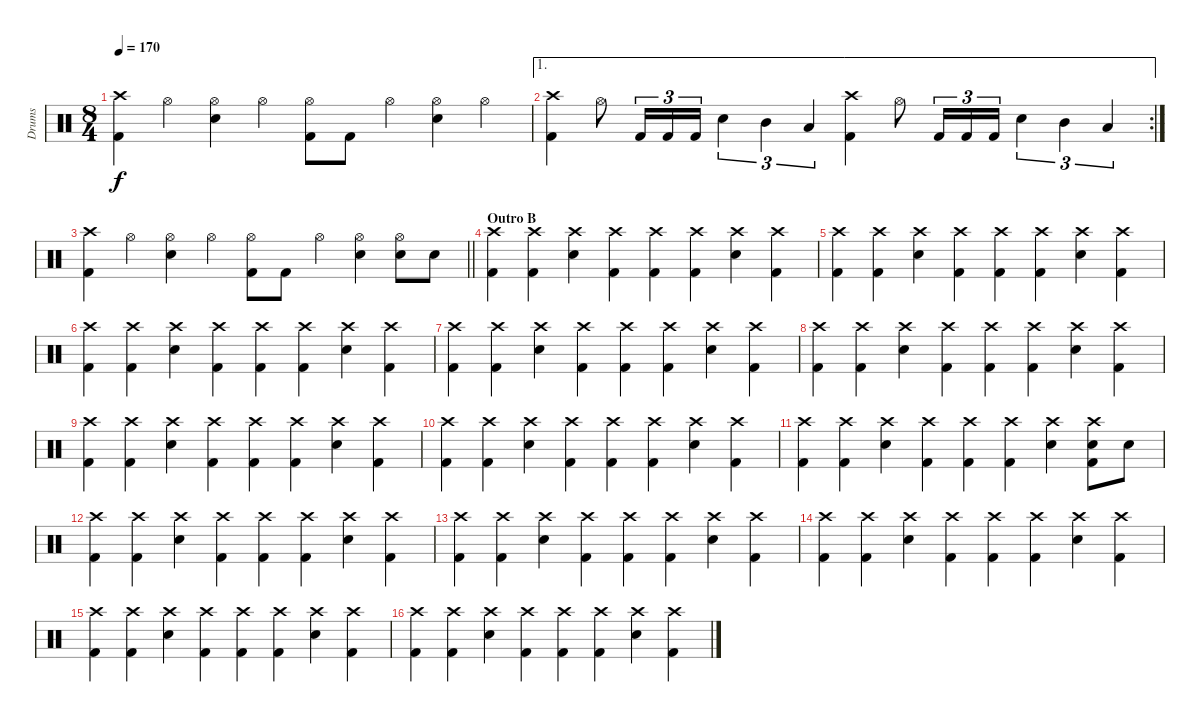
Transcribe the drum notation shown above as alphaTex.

\track ("Drums" "Drums") {instrument percussion}
\staff {score}
\articulation defaults
\ts (8 4)
\tempo 170
\clef neutral
\ks c
("Crash high (hit)" "Kick (hit) 2").4{dy f} "Hi-Hat (open)".4 ("Hi-Hat (open)" "Snare (hit) 2").4 "Hi-Hat (open)".4 ("Hi-Hat (open)" "Kick (hit) 2").8 "Kick (hit) 2".8 "Hi-Hat (open)".4 ("Hi-Hat (open)" "Snare (hit) 2").4 "Hi-Hat (open)".4 |
\ae 1
\rc 2
("Crash high (hit)" "Kick (hit) 2").4 "Hi-Hat (open)".8 "Kick (hit) 2".16{tu (3 2)} "Kick (hit) 2".16{tu (3 2)} "Kick (hit) 2".16{tu (3 2)} "Snare (hit) 2".4{tu (3 2)} "Mid Tom (hit)".4{tu (3 2)} "Low Tom (hit)".4{tu (3 2)} ("Kick (hit) 2" "Crash high (hit)").4 "Hi-Hat (open)".8 "Kick (hit) 2".16{tu (3 2)} "Kick (hit) 2".16{tu (3 2)} "Kick (hit) 2".16{tu (3 2)} "Snare (hit) 2".4{tu (3 2)} "Mid Tom (hit)".4{tu (3 2)} "Low Tom (hit)".4{tu (3 2)} |
\barLineRight lightlight
("Crash high (hit)" "Kick (hit) 2").4 "Hi-Hat (open)".4 ("Hi-Hat (open)" "Snare (hit) 2").4 "Hi-Hat (open)".4 ("Hi-Hat (open)" "Kick (hit) 2").8 "Kick (hit) 2".8 "Hi-Hat (open)".4 ("Hi-Hat (open)" "Snare (hit) 2").4 ("Hi-Hat (open)" "Snare (hit) 2").8 "Snare (hit) 2".8 |
\section ("" "Outro B")
("Crash high (hit)" "Kick (hit) 2").4 ("Crash high (hit)" "Kick (hit) 2").4 ("Crash high (hit)" "Snare (hit) 2").4 ("Crash high (hit)" "Kick (hit) 2").4 ("Crash high (hit)" "Kick (hit) 2").4 ("Crash high (hit)" "Kick (hit) 2").4 ("Crash high (hit)" "Snare (hit) 2").4 ("Crash high (hit)" "Kick (hit) 2").4 |
("Crash high (hit)" "Kick (hit) 2").4 ("Crash high (hit)" "Kick (hit) 2").4 ("Crash high (hit)" "Snare (hit) 2").4 ("Crash high (hit)" "Kick (hit) 2").4 ("Crash high (hit)" "Kick (hit) 2").4 ("Crash high (hit)" "Kick (hit) 2").4 ("Crash high (hit)" "Snare (hit) 2").4 ("Crash high (hit)" "Kick (hit) 2").4 |
("Crash high (hit)" "Kick (hit) 2").4 ("Crash high (hit)" "Kick (hit) 2").4 ("Crash high (hit)" "Snare (hit) 2").4 ("Crash high (hit)" "Kick (hit) 2").4 ("Crash high (hit)" "Kick (hit) 2").4 ("Crash high (hit)" "Kick (hit) 2").4 ("Crash high (hit)" "Snare (hit) 2").4 ("Crash high (hit)" "Kick (hit) 2").4 |
("Crash high (hit)" "Kick (hit) 2").4 ("Crash high (hit)" "Kick (hit) 2").4 ("Crash high (hit)" "Snare (hit) 2").4 ("Crash high (hit)" "Kick (hit) 2").4 ("Crash high (hit)" "Kick (hit) 2").4 ("Crash high (hit)" "Kick (hit) 2").4 ("Crash high (hit)" "Snare (hit) 2").4 ("Crash high (hit)" "Kick (hit) 2").4 |
("Crash high (hit)" "Kick (hit) 2").4 ("Crash high (hit)" "Kick (hit) 2").4 ("Crash high (hit)" "Snare (hit) 2").4 ("Crash high (hit)" "Kick (hit) 2").4 ("Crash high (hit)" "Kick (hit) 2").4 ("Crash high (hit)" "Kick (hit) 2").4 ("Crash high (hit)" "Snare (hit) 2").4 ("Crash high (hit)" "Kick (hit) 2").4 |
("Crash high (hit)" "Kick (hit) 2").4 ("Crash high (hit)" "Kick (hit) 2").4 ("Crash high (hit)" "Snare (hit) 2").4 ("Crash high (hit)" "Kick (hit) 2").4 ("Crash high (hit)" "Kick (hit) 2").4 ("Crash high (hit)" "Kick (hit) 2").4 ("Crash high (hit)" "Snare (hit) 2").4 ("Crash high (hit)" "Kick (hit) 2").4 |
("Crash high (hit)" "Kick (hit) 2").4 ("Crash high (hit)" "Kick (hit) 2").4 ("Crash high (hit)" "Snare (hit) 2").4 ("Crash high (hit)" "Kick (hit) 2").4 ("Crash high (hit)" "Kick (hit) 2").4 ("Crash high (hit)" "Kick (hit) 2").4 ("Crash high (hit)" "Snare (hit) 2").4 ("Crash high (hit)" "Kick (hit) 2").4 |
("Crash high (hit)" "Kick (hit) 2").4 ("Crash high (hit)" "Kick (hit) 2").4 ("Crash high (hit)" "Snare (hit) 2").4 ("Crash high (hit)" "Kick (hit) 2").4 ("Crash high (hit)" "Kick (hit) 2").4 ("Crash high (hit)" "Kick (hit) 2").4 ("Crash high (hit)" "Snare (hit) 2").4 ("Crash high (hit)" "Kick (hit) 2" "Snare (hit) 2").8 "Snare (hit) 2".8 |
("Crash high (hit)" "Kick (hit) 2").4 ("Crash high (hit)" "Kick (hit) 2").4 ("Crash high (hit)" "Snare (hit) 2").4 ("Crash high (hit)" "Kick (hit) 2").4 ("Crash high (hit)" "Kick (hit) 2").4 ("Crash high (hit)" "Kick (hit) 2").4 ("Crash high (hit)" "Snare (hit) 2").4 ("Crash high (hit)" "Kick (hit) 2").4 |
("Crash high (hit)" "Kick (hit) 2").4 ("Crash high (hit)" "Kick (hit) 2").4 ("Crash high (hit)" "Snare (hit) 2").4 ("Crash high (hit)" "Kick (hit) 2").4 ("Crash high (hit)" "Kick (hit) 2").4 ("Crash high (hit)" "Kick (hit) 2").4 ("Crash high (hit)" "Snare (hit) 2").4 ("Crash high (hit)" "Kick (hit) 2").4 |
("Crash high (hit)" "Kick (hit) 2").4 ("Crash high (hit)" "Kick (hit) 2").4 ("Crash high (hit)" "Snare (hit) 2").4 ("Crash high (hit)" "Kick (hit) 2").4 ("Crash high (hit)" "Kick (hit) 2").4 ("Crash high (hit)" "Kick (hit) 2").4 ("Crash high (hit)" "Snare (hit) 2").4 ("Crash high (hit)" "Kick (hit) 2").4 |
("Crash high (hit)" "Kick (hit) 2").4 ("Crash high (hit)" "Kick (hit) 2").4 ("Crash high (hit)" "Snare (hit) 2").4 ("Crash high (hit)" "Kick (hit) 2").4 ("Crash high (hit)" "Kick (hit) 2").4 ("Crash high (hit)" "Kick (hit) 2").4 ("Crash high (hit)" "Snare (hit) 2").4 ("Crash high (hit)" "Kick (hit) 2").4 |
("Crash high (hit)" "Kick (hit) 2").4 ("Crash high (hit)" "Kick (hit) 2").4 ("Crash high (hit)" "Snare (hit) 2").4 ("Crash high (hit)" "Kick (hit) 2").4 ("Crash high (hit)" "Kick (hit) 2").4 ("Crash high (hit)" "Kick (hit) 2").4 ("Crash high (hit)" "Snare (hit) 2").4 ("Crash high (hit)" "Kick (hit) 2").4
